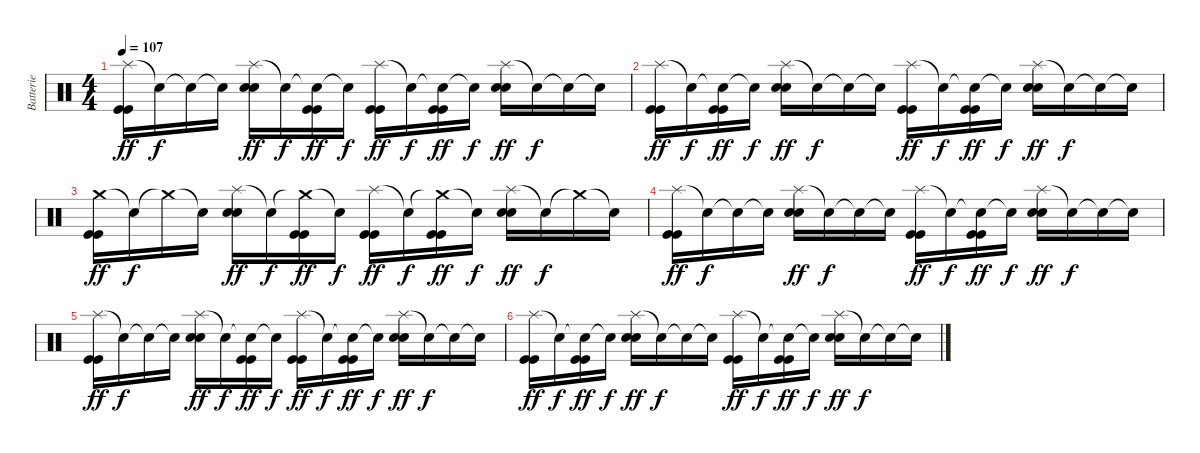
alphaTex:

\track ("Batterie" "Batterie") {instrument percussion}
\staff {score}
\articulation defaults
\ts (4 4)
\tempo 107
\clef neutral
\ks c
("Splash (hit)" "Kick (hit)" "Kick (hit)").16{dy ff} "Snare (hit)"{t}.16{dy f} "Snare (hit)"{t}.16 "Snare (hit)"{t}.16 ("Splash (hit)" "Snare (hit) 2" "Snare (hit) 2").16{dy ff} "Snare (hit)"{t}.16{dy f} ("Snare (hit)"{t} "Kick (hit)" "Kick (hit)").16{dy ff} "Snare (hit)"{t}.16{dy f} ("Splash (hit)" "Kick (hit)" "Kick (hit)").16{dy ff} "Snare (hit)"{t}.16{dy f} ("Snare (hit)"{t} "Kick (hit)" "Kick (hit)").16{dy ff} "Snare (hit)"{t}.16{dy f} ("Splash (hit)" "Snare (hit) 2" "Snare (hit) 2").16{dy ff} "Snare (hit)"{t}.16{dy f} "Snare (hit)"{t}.16 "Snare (hit)"{t}.16 |
("Splash (hit)" "Kick (hit)" "Kick (hit)").16{dy ff} "Snare (hit)"{t}.16{dy f} ("Snare (hit)"{t} "Kick (hit)" "Kick (hit)").16{dy ff} "Snare (hit)"{t}.16{dy f} ("Splash (hit)" "Snare (hit) 2" "Snare (hit) 2").16{dy ff} "Snare (hit)"{t}.16{dy f} "Snare (hit)"{t}.16 "Snare (hit)"{t}.16 ("Splash (hit)" "Kick (hit)" "Kick (hit)").16{dy ff} "Snare (hit)"{t}.16{dy f} ("Snare (hit)"{t} "Kick (hit)" "Kick (hit)").16{dy ff} "Snare (hit)"{t}.16{dy f} ("Splash (hit)" "Snare (hit) 2" "Snare (hit) 2").16{dy ff} "Snare (hit)"{t}.16{dy f} "Snare (hit)"{t}.16 "Snare (hit)"{t}.16 |
("Crash medium (hit)" "Kick (hit)" "Kick (hit)").16{dy ff} "Snare (hit)"{t}.16{dy f} "Crash medium (hit)"{t}.16 "Snare (hit)"{t}.16 ("Splash (hit)" "Snare (hit) 2" "Snare (hit) 2").16{dy ff} "Snare (hit)"{t}.16{dy f} ("Crash medium (hit)"{t} "Kick (hit)" "Kick (hit)").16{dy ff} "Snare (hit)"{t}.16{dy f} ("Splash (hit)" "Kick (hit)" "Kick (hit)").16{dy ff} "Snare (hit)"{t}.16{dy f} ("Crash medium (hit)"{t} "Kick (hit)" "Kick (hit)").16{dy ff} "Snare (hit)"{t}.16{dy f} ("Splash (hit)" "Snare (hit) 2" "Snare (hit) 2").16{dy ff} "Snare (hit)"{t}.16{dy f} "Crash medium (hit)"{t}.16 "Snare (hit)"{t}.16 |
("Splash (hit)" "Kick (hit)" "Kick (hit)").16{dy ff} "Snare (hit)"{t}.16{dy f} "Snare (hit)"{t}.16 "Snare (hit)"{t}.16 ("Splash (hit)" "Snare (hit) 2" "Snare (hit) 2").16{dy ff} "Snare (hit)"{t}.16{dy f} "Snare (hit)"{t}.16 "Snare (hit)"{t}.16 ("Splash (hit)" "Kick (hit)" "Kick (hit)").16{dy ff} "Snare (hit)"{t}.16{dy f} ("Snare (hit)"{t} "Kick (hit)" "Kick (hit)").16{dy ff} "Snare (hit)"{t}.16{dy f} ("Splash (hit)" "Snare (hit) 2" "Snare (hit) 2").16{dy ff} "Snare (hit)"{t}.16{dy f} "Snare (hit)"{t}.16 "Snare (hit)"{t}.16 |
("Splash (hit)" "Kick (hit)" "Kick (hit)").16{dy ff} "Snare (hit)"{t}.16{dy f} "Snare (hit)"{t}.16 "Snare (hit)"{t}.16 ("Splash (hit)" "Snare (hit) 2" "Snare (hit) 2").16{dy ff} "Snare (hit)"{t}.16{dy f} ("Snare (hit)"{t} "Kick (hit)" "Kick (hit)").16{dy ff} "Snare (hit)"{t}.16{dy f} ("Splash (hit)" "Kick (hit)" "Kick (hit)").16{dy ff} "Snare (hit)"{t}.16{dy f} ("Snare (hit)"{t} "Kick (hit)" "Kick (hit)").16{dy ff} "Snare (hit)"{t}.16{dy f} ("Splash (hit)" "Snare (hit) 2" "Snare (hit) 2").16{dy ff} "Snare (hit)"{t}.16{dy f} "Snare (hit)"{t}.16 "Snare (hit)"{t}.16 |
("Splash (hit)" "Kick (hit)" "Kick (hit)").16{dy ff} "Snare (hit)"{t}.16{dy f} ("Snare (hit)"{t} "Kick (hit)" "Kick (hit)").16{dy ff} "Snare (hit)"{t}.16{dy f} ("Splash (hit)" "Snare (hit) 2" "Snare (hit) 2").16{dy ff} "Snare (hit)"{t}.16{dy f} "Snare (hit)"{t}.16 "Snare (hit)"{t}.16 ("Splash (hit)" "Kick (hit)" "Kick (hit)").16{dy ff} "Snare (hit)"{t}.16{dy f} ("Snare (hit)"{t} "Kick (hit)" "Kick (hit)").16{dy ff} "Snare (hit)"{t}.16{dy f} ("Splash (hit)" "Snare (hit) 2" "Snare (hit) 2").16{dy ff} "Snare (hit)"{t}.16{dy f} "Snare (hit)"{t}.16 "Snare (hit)"{t}.16
